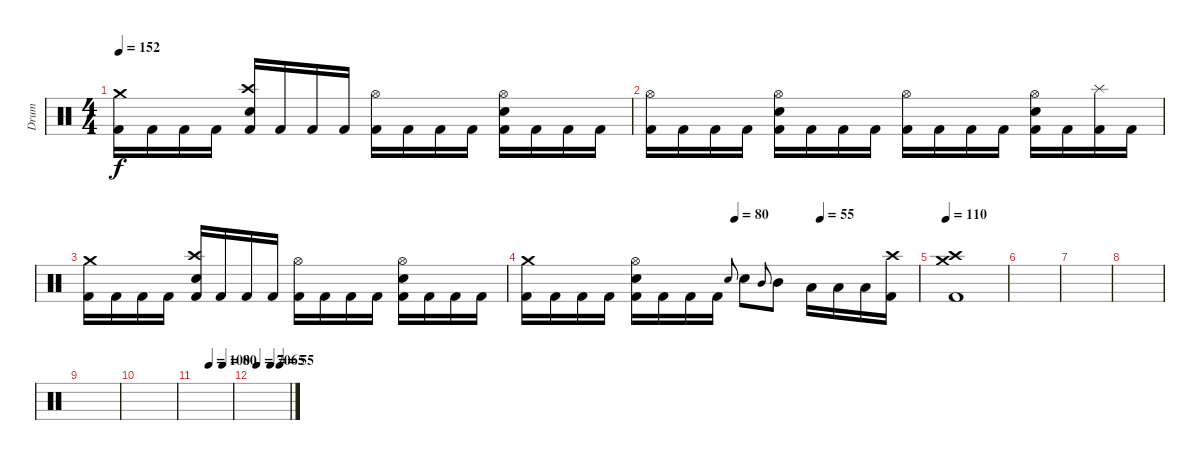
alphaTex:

\track ("Drum" "Drum") {instrument percussion}
\staff {score}
\articulation defaults
\ts (4 4)
\tempo 152
\clef neutral
\ks c
("Crash medium (hit)" "Kick (hit) 2").16{dy f} "Kick (hit) 2".16 "Kick (hit) 2".16 "Kick (hit) 2".16 ("Crash high (hit)" "Snare (hit) 2" "Kick (hit) 2").16 "Kick (hit) 2".16 "Kick (hit) 2".16 "Kick (hit) 2".16 ("Hi-Hat (open)" "Kick (hit) 2").16 "Kick (hit) 2".16 "Kick (hit) 2".16 "Kick (hit) 2".16 ("Hi-Hat (open)" "Snare (hit) 2" "Kick (hit) 2").16 "Kick (hit) 2".16 "Kick (hit) 2".16 "Kick (hit) 2".16 |
("Hi-Hat (open)" "Kick (hit) 2").16 "Kick (hit) 2".16 "Kick (hit) 2".16 "Kick (hit) 2".16 ("Hi-Hat (open)" "Snare (hit) 2" "Kick (hit) 2").16 "Kick (hit) 2".16 "Kick (hit) 2".16 "Kick (hit) 2".16 ("Hi-Hat (open)" "Kick (hit) 2").16 "Kick (hit) 2".16 "Kick (hit) 2".16 "Kick (hit) 2".16 ("Hi-Hat (open)" "Snare (hit) 2" "Kick (hit) 2").16 "Kick (hit) 2".16 ("Splash (hit)" "Kick (hit) 2").16 "Kick (hit) 2".16 |
("Crash medium (hit)" "Kick (hit) 2").16 "Kick (hit) 2".16 "Kick (hit) 2".16 "Kick (hit) 2".16 ("Crash high (hit)" "Snare (hit) 2" "Kick (hit) 2").16 "Kick (hit) 2".16 "Kick (hit) 2".16 "Kick (hit) 2".16 ("Hi-Hat (open)" "Kick (hit) 2").16 "Kick (hit) 2".16 "Kick (hit) 2".16 "Kick (hit) 2".16 ("Hi-Hat (open)" "Snare (hit) 2" "Kick (hit) 2").16 "Kick (hit) 2".16 "Kick (hit) 2".16 "Kick (hit) 2".16 |
\tempo (80 0.53125)
\tempo (55 0.75)
("Crash medium (hit)" "Kick (hit) 2").16 "Kick (hit) 2".16 "Kick (hit) 2".16 "Kick (hit) 2".16 ("Hi-Hat (open)" "Snare (hit) 2" "Kick (hit) 2").16 "Kick (hit) 2".16 "Kick (hit) 2".16 "Kick (hit) 2".16 "Snare (hit) 2".8{gr onbeat} "Snare (hit) 2".8 "Mid Tom (hit)".8{gr onbeat} "Mid Tom (hit)".8 "Low Tom (hit)".16 "Low Tom (hit)".16 "Low Floor Tom (hit)".16 ("Crash high (hit)" "Kick (hit) 2").16 |
\tempo 110
("Crash medium (hit)" "Crash high (hit)" "Kick (hit) 2").1 |
|
|
|
|
|
\tempo (100 0.375)
\tempo (80 0.75)
|
\tempo (70 0.125)
\tempo (65 0.5)
\tempo (55 0.75)
